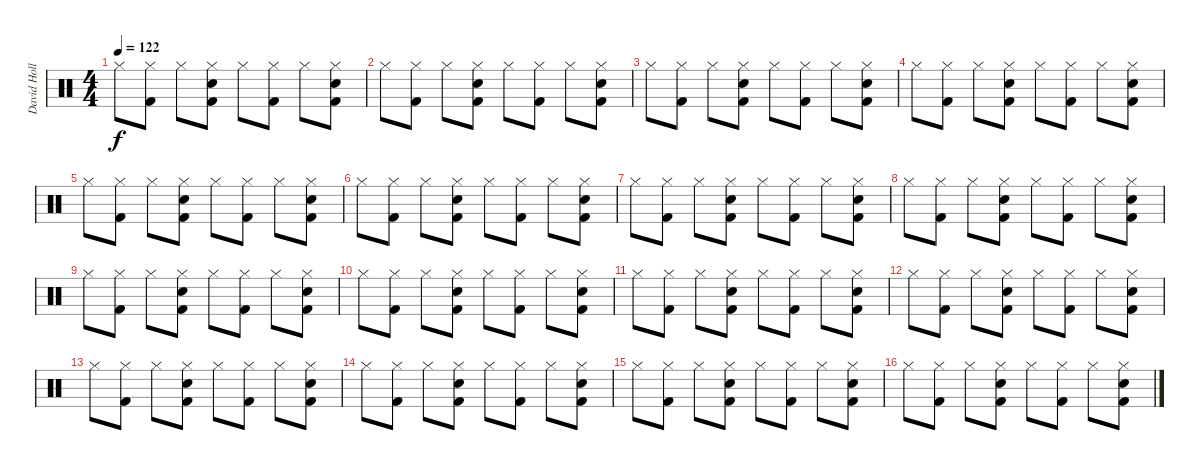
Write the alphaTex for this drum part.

\track ("David Holland" "David Holl") {instrument percussion}
\staff {score}
\articulation defaults
\ts (4 4)
\tempo 122
\clef neutral
\ks c "Hi-Hat (closed)".8{dy f}
("Kick (hit) 2" "Hi-Hat (closed)").8 "Hi-Hat (closed)".8 ("Electric Snare (hit)" "Kick (hit) 2" "Hi-Hat (closed)").8 "Hi-Hat (closed)".8 ("Kick (hit) 2" "Hi-Hat (closed)").8 "Hi-Hat (closed)".8 ("Electric Snare (hit)" "Kick (hit) 2" "Hi-Hat (closed)").8 |
"Hi-Hat (closed)".8 ("Kick (hit) 2" "Hi-Hat (closed)").8 "Hi-Hat (closed)".8 ("Electric Snare (hit)" "Kick (hit) 2" "Hi-Hat (closed)").8 "Hi-Hat (closed)".8 ("Kick (hit) 2" "Hi-Hat (closed)").8 "Hi-Hat (closed)".8 ("Electric Snare (hit)" "Kick (hit) 2" "Hi-Hat (closed)").8 |
"Hi-Hat (closed)".8 ("Kick (hit) 2" "Hi-Hat (closed)").8 "Hi-Hat (closed)".8 ("Electric Snare (hit)" "Kick (hit) 2" "Hi-Hat (closed)").8 "Hi-Hat (closed)".8 ("Kick (hit) 2" "Hi-Hat (closed)").8 "Hi-Hat (closed)".8 ("Electric Snare (hit)" "Kick (hit) 2" "Hi-Hat (closed)").8 |
"Hi-Hat (closed)".8 ("Kick (hit) 2" "Hi-Hat (closed)").8 "Hi-Hat (closed)".8 ("Electric Snare (hit)" "Kick (hit) 2" "Hi-Hat (closed)").8 "Hi-Hat (closed)".8 ("Kick (hit) 2" "Hi-Hat (closed)").8 "Hi-Hat (closed)".8 ("Electric Snare (hit)" "Kick (hit) 2" "Hi-Hat (closed)").8 |
"Hi-Hat (closed)".8 ("Kick (hit) 2" "Hi-Hat (closed)").8 "Hi-Hat (closed)".8 ("Electric Snare (hit)" "Kick (hit) 2" "Hi-Hat (closed)").8 "Hi-Hat (closed)".8 ("Kick (hit) 2" "Hi-Hat (closed)").8 "Hi-Hat (closed)".8 ("Electric Snare (hit)" "Kick (hit) 2" "Hi-Hat (closed)").8 |
"Hi-Hat (closed)".8 ("Kick (hit) 2" "Hi-Hat (closed)").8 "Hi-Hat (closed)".8 ("Electric Snare (hit)" "Kick (hit) 2" "Hi-Hat (closed)").8 "Hi-Hat (closed)".8 ("Kick (hit) 2" "Hi-Hat (closed)").8 "Hi-Hat (closed)".8 ("Electric Snare (hit)" "Kick (hit) 2" "Hi-Hat (closed)").8 |
"Hi-Hat (closed)".8 ("Kick (hit) 2" "Hi-Hat (closed)").8 "Hi-Hat (closed)".8 ("Electric Snare (hit)" "Kick (hit) 2" "Hi-Hat (closed)").8 "Hi-Hat (closed)".8 ("Kick (hit) 2" "Hi-Hat (closed)").8 "Hi-Hat (closed)".8 ("Electric Snare (hit)" "Kick (hit) 2" "Hi-Hat (closed)").8 |
"Hi-Hat (closed)".8 ("Kick (hit) 2" "Hi-Hat (closed)").8 "Hi-Hat (closed)".8 ("Electric Snare (hit)" "Kick (hit) 2" "Hi-Hat (closed)").8 "Hi-Hat (closed)".8 ("Kick (hit) 2" "Hi-Hat (closed)").8 "Hi-Hat (closed)".8 ("Electric Snare (hit)" "Kick (hit) 2" "Hi-Hat (closed)").8 |
"Hi-Hat (closed)".8 ("Kick (hit) 2" "Hi-Hat (closed)").8 "Hi-Hat (closed)".8 ("Electric Snare (hit)" "Kick (hit) 2" "Hi-Hat (closed)").8 "Hi-Hat (closed)".8 ("Kick (hit) 2" "Hi-Hat (closed)").8 "Hi-Hat (closed)".8 ("Electric Snare (hit)" "Kick (hit) 2" "Hi-Hat (closed)").8 |
"Hi-Hat (closed)".8 ("Kick (hit) 2" "Hi-Hat (closed)").8 "Hi-Hat (closed)".8 ("Electric Snare (hit)" "Kick (hit) 2" "Hi-Hat (closed)").8 "Hi-Hat (closed)".8 ("Kick (hit) 2" "Hi-Hat (closed)").8 "Hi-Hat (closed)".8 ("Electric Snare (hit)" "Kick (hit) 2" "Hi-Hat (closed)").8 |
"Hi-Hat (closed)".8 ("Kick (hit) 2" "Hi-Hat (closed)").8 "Hi-Hat (closed)".8 ("Electric Snare (hit)" "Kick (hit) 2" "Hi-Hat (closed)").8 "Hi-Hat (closed)".8 ("Kick (hit) 2" "Hi-Hat (closed)").8 "Hi-Hat (closed)".8 ("Electric Snare (hit)" "Kick (hit) 2" "Hi-Hat (closed)").8 |
"Hi-Hat (closed)".8 ("Kick (hit) 2" "Hi-Hat (closed)").8 "Hi-Hat (closed)".8 ("Electric Snare (hit)" "Kick (hit) 2" "Hi-Hat (closed)").8 "Hi-Hat (closed)".8 ("Kick (hit) 2" "Hi-Hat (closed)").8 "Hi-Hat (closed)".8 ("Electric Snare (hit)" "Kick (hit) 2" "Hi-Hat (closed)").8 |
"Hi-Hat (closed)".8 ("Kick (hit) 2" "Hi-Hat (closed)").8 "Hi-Hat (closed)".8 ("Electric Snare (hit)" "Kick (hit) 2" "Hi-Hat (closed)").8 "Hi-Hat (closed)".8 ("Kick (hit) 2" "Hi-Hat (closed)").8 "Hi-Hat (closed)".8 ("Electric Snare (hit)" "Kick (hit) 2" "Hi-Hat (closed)").8 |
"Hi-Hat (closed)".8 ("Kick (hit) 2" "Hi-Hat (closed)").8 "Hi-Hat (closed)".8 ("Electric Snare (hit)" "Kick (hit) 2" "Hi-Hat (closed)").8 "Hi-Hat (closed)".8 ("Kick (hit) 2" "Hi-Hat (closed)").8 "Hi-Hat (closed)".8 ("Electric Snare (hit)" "Kick (hit) 2" "Hi-Hat (closed)").8 |
"Hi-Hat (closed)".8 ("Kick (hit) 2" "Hi-Hat (closed)").8 "Hi-Hat (closed)".8 ("Electric Snare (hit)" "Kick (hit) 2" "Hi-Hat (closed)").8 "Hi-Hat (closed)".8 ("Kick (hit) 2" "Hi-Hat (closed)").8 "Hi-Hat (closed)".8 ("Electric Snare (hit)" "Kick (hit) 2" "Hi-Hat (closed)").8 |
"Hi-Hat (closed)".8 ("Kick (hit) 2" "Hi-Hat (closed)").8 "Hi-Hat (closed)".8 ("Electric Snare (hit)" "Kick (hit) 2" "Hi-Hat (closed)").8 "Hi-Hat (closed)".8 ("Kick (hit) 2" "Hi-Hat (closed)").8 "Hi-Hat (closed)".8 ("Electric Snare (hit)" "Kick (hit) 2" "Hi-Hat (closed)").8
